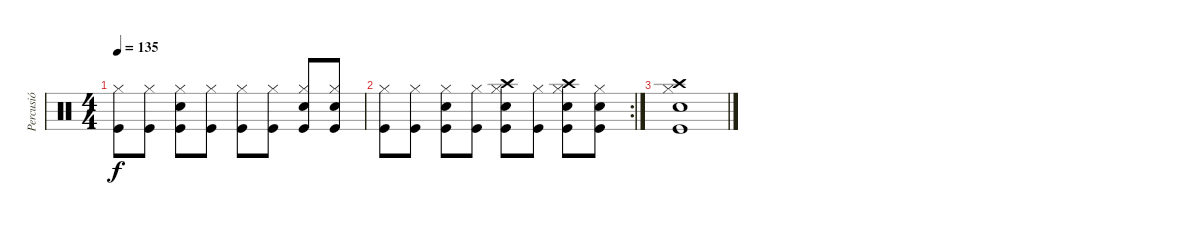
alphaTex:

\track ("Percusió" "Percusió") {instrument percussion}
\staff {score}
\articulation defaults
\ts (4 4)
\tempo 135
\clef neutral
\ks c
("Kick (hit)" "Hi-Hat (closed)").8{dy f} ("Kick (hit)" "Hi-Hat (closed)").8 ("Kick (hit)" "Hi-Hat (closed)" "Snare (hit) 2").8 ("Kick (hit)" "Hi-Hat (closed)").8 ("Kick (hit)" "Hi-Hat (closed)").8 ("Kick (hit)" "Hi-Hat (closed)").8 ("Kick (hit)" "Hi-Hat (closed)" "Snare (hit) 2").8 ("Kick (hit)" "Hi-Hat (closed)" "Snare (hit) 2").8 |
\rc 2
("Kick (hit)" "Hi-Hat (closed)").8 ("Kick (hit)" "Hi-Hat (closed)").8 ("Kick (hit)" "Hi-Hat (closed)" "Snare (hit) 2").8 ("Kick (hit)" "Hi-Hat (closed)").8 ("Kick (hit)" "Hi-Hat (closed)" "Snare (hit) 2" "Crash high (hit)").8 ("Kick (hit)" "Hi-Hat (closed)").8 ("Kick (hit)" "Hi-Hat (closed)" "Snare (hit) 2" "Crash high (hit)").8 ("Kick (hit)" "Hi-Hat (closed)" "Snare (hit) 2").8 |
("Kick (hit)" "Hi-Hat (closed)" "Snare (hit) 2" "Crash high (hit)").1
